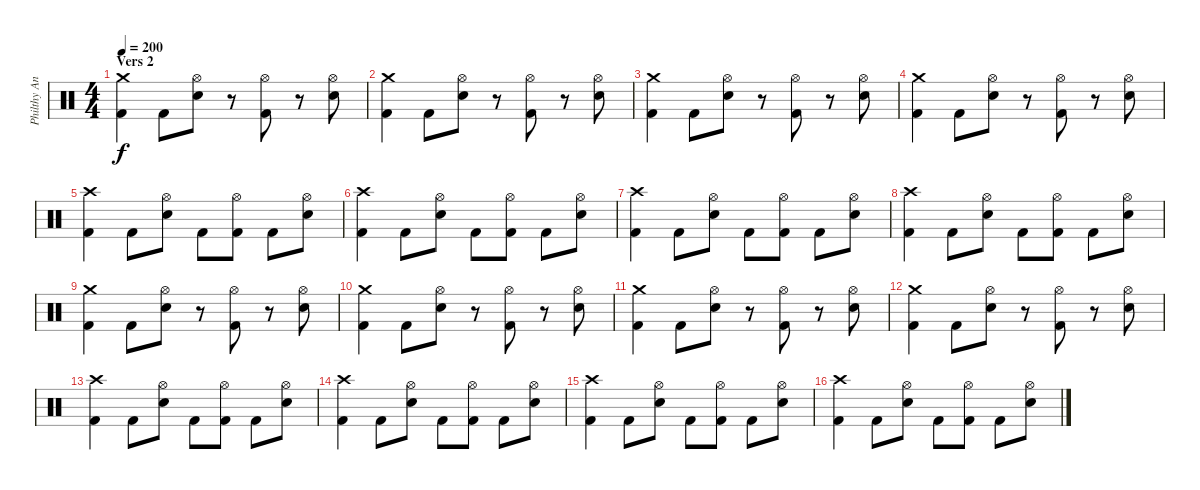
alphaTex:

\track ("Philthy Animal Taylor" "Philthy An") {instrument percussion}
\staff {score}
\articulation defaults
\ts (4 4)
\section ("" "Vers 2")
\tempo 200
\clef neutral
\ks c
("Crash medium (hit)" "Kick (hit) 2").4{dy f} "Kick (hit) 2".8 ("Hi-Hat (open)" "Snare (hit) 2").8 r.8 ("Hi-Hat (open)" "Kick (hit) 2").8 r.8 ("Hi-Hat (open)" "Snare (hit) 2").8 |
("Crash medium (hit)" "Kick (hit) 2").4 "Kick (hit) 2".8 ("Hi-Hat (open)" "Snare (hit) 2").8 r.8 ("Hi-Hat (open)" "Kick (hit) 2").8 r.8 ("Hi-Hat (open)" "Snare (hit) 2").8 |
("Crash medium (hit)" "Kick (hit) 2").4 "Kick (hit) 2".8 ("Hi-Hat (open)" "Snare (hit) 2").8 r.8 ("Hi-Hat (open)" "Kick (hit) 2").8 r.8 ("Hi-Hat (open)" "Snare (hit) 2").8 |
("Crash medium (hit)" "Kick (hit) 2").4 "Kick (hit) 2".8 ("Hi-Hat (open)" "Snare (hit) 2").8 r.8 ("Hi-Hat (open)" "Kick (hit) 2").8 r.8 ("Hi-Hat (open)" "Snare (hit) 2").8 |
("Crash high (hit)" "Kick (hit) 2").4 "Kick (hit) 2".8 ("Hi-Hat (open)" "Snare (hit) 2").8 "Kick (hit) 2".8 ("Hi-Hat (open)" "Kick (hit) 2").8 "Kick (hit) 2".8 ("Hi-Hat (open)" "Snare (hit) 2").8 |
("Crash high (hit)" "Kick (hit) 2").4 "Kick (hit) 2".8 ("Hi-Hat (open)" "Snare (hit) 2").8 "Kick (hit) 2".8 ("Hi-Hat (open)" "Kick (hit) 2").8 "Kick (hit) 2".8 ("Hi-Hat (open)" "Snare (hit) 2").8 |
("Crash high (hit)" "Kick (hit) 2").4 "Kick (hit) 2".8 ("Hi-Hat (open)" "Snare (hit) 2").8 "Kick (hit) 2".8 ("Hi-Hat (open)" "Kick (hit) 2").8 "Kick (hit) 2".8 ("Hi-Hat (open)" "Snare (hit) 2").8 |
("Crash high (hit)" "Kick (hit) 2").4 "Kick (hit) 2".8 ("Hi-Hat (open)" "Snare (hit) 2").8 "Kick (hit) 2".8 ("Hi-Hat (open)" "Kick (hit) 2").8 "Kick (hit) 2".8 ("Hi-Hat (open)" "Snare (hit) 2").8 |
("Crash medium (hit)" "Kick (hit) 2").4 "Kick (hit) 2".8 ("Hi-Hat (open)" "Snare (hit) 2").8 r.8 ("Hi-Hat (open)" "Kick (hit) 2").8 r.8 ("Hi-Hat (open)" "Snare (hit) 2").8 |
("Crash medium (hit)" "Kick (hit) 2").4 "Kick (hit) 2".8 ("Hi-Hat (open)" "Snare (hit) 2").8 r.8 ("Hi-Hat (open)" "Kick (hit) 2").8 r.8 ("Hi-Hat (open)" "Snare (hit) 2").8 |
("Crash medium (hit)" "Kick (hit) 2").4 "Kick (hit) 2".8 ("Hi-Hat (open)" "Snare (hit) 2").8 r.8 ("Hi-Hat (open)" "Kick (hit) 2").8 r.8 ("Hi-Hat (open)" "Snare (hit) 2").8 |
("Crash medium (hit)" "Kick (hit) 2").4 "Kick (hit) 2".8 ("Hi-Hat (open)" "Snare (hit) 2").8 r.8 ("Hi-Hat (open)" "Kick (hit) 2").8 r.8 ("Hi-Hat (open)" "Snare (hit) 2").8 |
("Crash high (hit)" "Kick (hit) 2").4 "Kick (hit) 2".8 ("Hi-Hat (open)" "Snare (hit) 2").8 "Kick (hit) 2".8 ("Hi-Hat (open)" "Kick (hit) 2").8 "Kick (hit) 2".8 ("Hi-Hat (open)" "Snare (hit) 2").8 |
("Crash high (hit)" "Kick (hit) 2").4 "Kick (hit) 2".8 ("Hi-Hat (open)" "Snare (hit) 2").8 "Kick (hit) 2".8 ("Hi-Hat (open)" "Kick (hit) 2").8 "Kick (hit) 2".8 ("Hi-Hat (open)" "Snare (hit) 2").8 |
("Crash high (hit)" "Kick (hit) 2").4 "Kick (hit) 2".8 ("Hi-Hat (open)" "Snare (hit) 2").8 "Kick (hit) 2".8 ("Hi-Hat (open)" "Kick (hit) 2").8 "Kick (hit) 2".8 ("Hi-Hat (open)" "Snare (hit) 2").8 |
("Crash high (hit)" "Kick (hit) 2").4 "Kick (hit) 2".8 ("Hi-Hat (open)" "Snare (hit) 2").8 "Kick (hit) 2".8 ("Hi-Hat (open)" "Kick (hit) 2").8 "Kick (hit) 2".8 ("Hi-Hat (open)" "Snare (hit) 2").8
